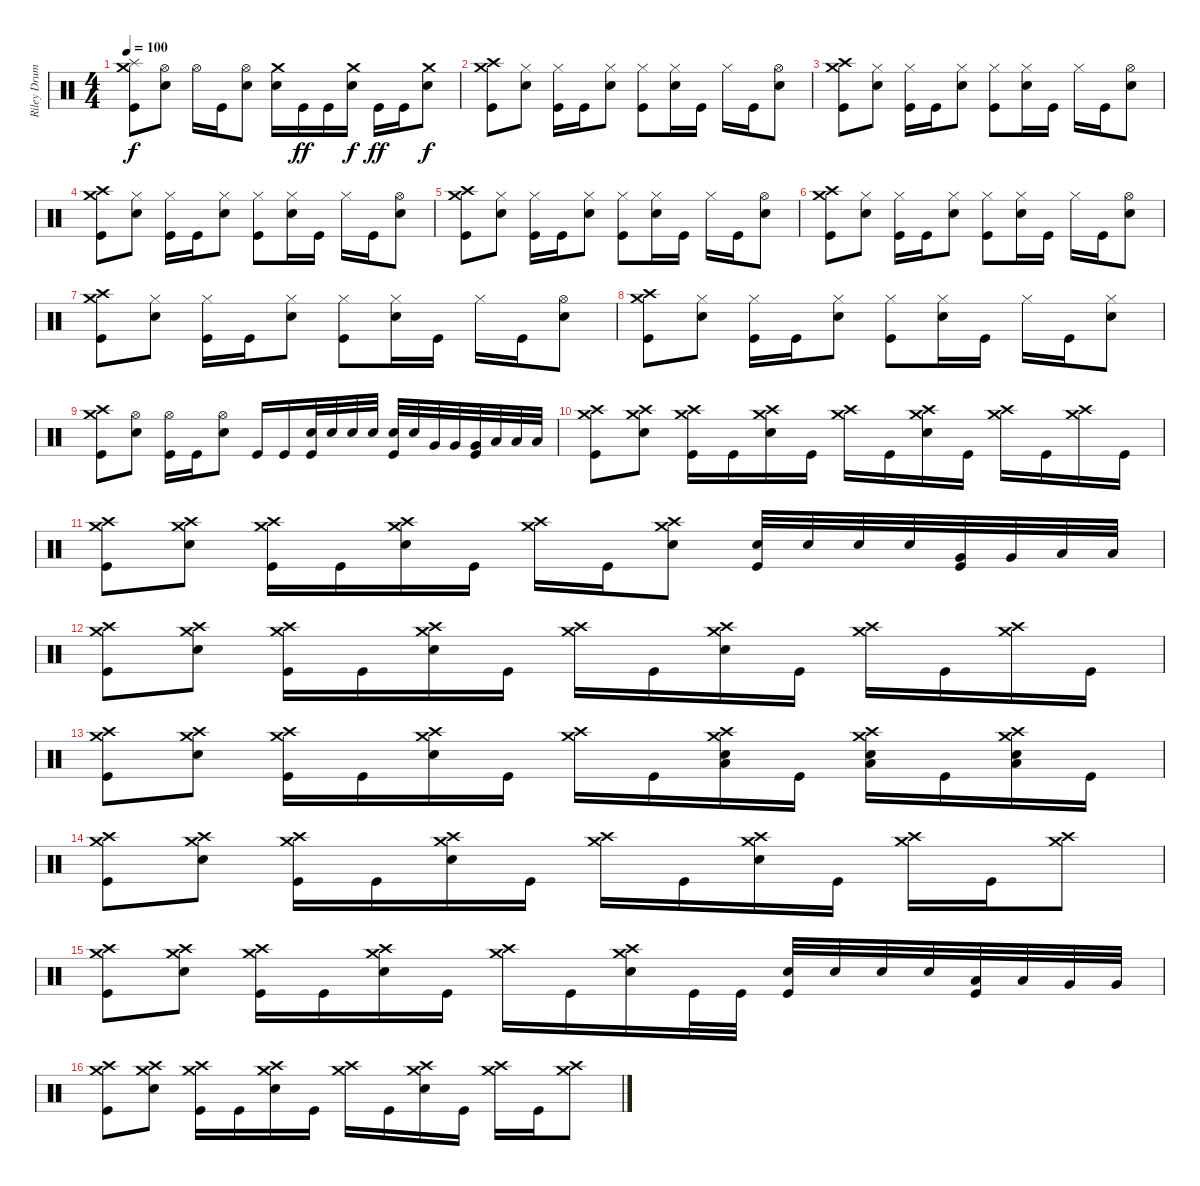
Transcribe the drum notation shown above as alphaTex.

\track ("Riley Drums" "Riley Drum") {instrument percussion}
\staff {score}
\articulation defaults
\ts (4 4)
\tempo 100
\clef neutral
\ks c
("Crash medium (hit)" "Splash (hit)" "Kick (hit)").8{dy f} ("Hi-Hat (open)" "Electric Snare (hit)").8 "Hi-Hat (open)".16 "Kick (hit)".16 ("Hi-Hat (open)" "Electric Snare (hit)").8 ("Crash medium (hit)" "Electric Snare (hit)").16 "Kick (hit)".16{dy ff} "Kick (hit)".16 ("Crash medium (hit)" "Electric Snare (hit)").16{dy f} "Kick (hit)".16{dy ff} "Kick (hit)".16 ("Crash medium (hit)" "Electric Snare (hit)").8{dy f} |
("Crash medium (hit)" "Crash high (hit)" "Kick (hit)").8 ("Hi-Hat (closed)" "Electric Snare (hit)").8 ("Hi-Hat (closed)" "Kick (hit)").16 "Kick (hit)".16 ("Hi-Hat (closed)" "Electric Snare (hit)").8 ("Hi-Hat (closed)" "Kick (hit)").8 ("Hi-Hat (closed)" "Electric Snare (hit)").16 "Kick (hit)".16 "Hi-Hat (closed)".16 "Kick (hit)".16 ("Hi-Hat (open)" "Electric Snare (hit)").8 |
("Crash medium (hit)" "Crash high (hit)" "Kick (hit)").8 ("Hi-Hat (closed)" "Electric Snare (hit)").8 ("Hi-Hat (closed)" "Kick (hit)").16 "Kick (hit)".16 ("Hi-Hat (closed)" "Electric Snare (hit)").8 ("Hi-Hat (closed)" "Kick (hit)").8 ("Hi-Hat (closed)" "Electric Snare (hit)").16 "Kick (hit)".16 "Hi-Hat (closed)".16 "Kick (hit)".16 ("Hi-Hat (open)" "Electric Snare (hit)").8 |
("Crash medium (hit)" "Crash high (hit)" "Kick (hit)").8 ("Hi-Hat (closed)" "Electric Snare (hit)").8 ("Hi-Hat (closed)" "Kick (hit)").16 "Kick (hit)".16 ("Hi-Hat (closed)" "Electric Snare (hit)").8 ("Hi-Hat (closed)" "Kick (hit)").8 ("Hi-Hat (closed)" "Electric Snare (hit)").16 "Kick (hit)".16 "Hi-Hat (closed)".16 "Kick (hit)".16 ("Hi-Hat (open)" "Electric Snare (hit)").8 |
("Crash medium (hit)" "Crash high (hit)" "Kick (hit)").8 ("Hi-Hat (closed)" "Electric Snare (hit)").8 ("Hi-Hat (closed)" "Kick (hit)").16 "Kick (hit)".16 ("Hi-Hat (closed)" "Electric Snare (hit)").8 ("Hi-Hat (closed)" "Kick (hit)").8 ("Hi-Hat (closed)" "Electric Snare (hit)").16 "Kick (hit)".16 "Hi-Hat (closed)".16 "Kick (hit)".16 ("Hi-Hat (open)" "Electric Snare (hit)").8 |
("Crash medium (hit)" "Crash high (hit)" "Kick (hit)").8 ("Hi-Hat (closed)" "Electric Snare (hit)").8 ("Hi-Hat (closed)" "Kick (hit)").16 "Kick (hit)".16 ("Hi-Hat (closed)" "Electric Snare (hit)").8 ("Hi-Hat (closed)" "Kick (hit)").8 ("Hi-Hat (closed)" "Electric Snare (hit)").16 "Kick (hit)".16 "Hi-Hat (closed)".16 "Kick (hit)".16 ("Hi-Hat (open)" "Electric Snare (hit)").8 |
("Crash medium (hit)" "Crash high (hit)" "Kick (hit)").8 ("Hi-Hat (closed)" "Electric Snare (hit)").8 ("Hi-Hat (closed)" "Kick (hit)").16 "Kick (hit)".16 ("Hi-Hat (closed)" "Electric Snare (hit)").8 ("Hi-Hat (closed)" "Kick (hit)").8 ("Hi-Hat (closed)" "Electric Snare (hit)").16 "Kick (hit)".16 "Hi-Hat (closed)".16 "Kick (hit)".16 ("Hi-Hat (open)" "Electric Snare (hit)").8 |
("Crash medium (hit)" "Crash high (hit)" "Kick (hit)").8 ("Hi-Hat (closed)" "Electric Snare (hit)").8 ("Hi-Hat (closed)" "Kick (hit)").16 "Kick (hit)".16 ("Hi-Hat (closed)" "Electric Snare (hit)").8 ("Hi-Hat (closed)" "Kick (hit)").8 ("Hi-Hat (closed)" "Electric Snare (hit)").16 "Kick (hit)".16 "Hi-Hat (closed)".16 "Kick (hit)".16 ("Hi-Hat (closed)" "Electric Snare (hit)").8 |
("Crash medium (hit)" "Crash high (hit)" "Kick (hit)").8 ("Hi-Hat (open)" "Electric Snare (hit)").8 ("Hi-Hat (open)" "Kick (hit)").16 "Kick (hit)".16 ("Hi-Hat (open)" "Electric Snare (hit)").8 "Kick (hit)".16 "Kick (hit)".16 ("Electric Snare (hit)" "Kick (hit)").32 "Electric Snare (hit)".32 "Electric Snare (hit)".32 "Electric Snare (hit)".32 ("Electric Snare (hit)" "Kick (hit)").32 "Electric Snare (hit)".32 "Very Low Tom (hit)".32 "Very Low Tom (hit)".32 ("Very Low Tom (hit)" "Kick (hit)").32 "Low Floor Tom (hit)".32 "Low Floor Tom (hit)".32 "Low Floor Tom (hit)".32 |
("Crash medium (hit)" "Crash high (hit)" "Kick (hit)").8 ("Crash medium (hit)" "Crash high (hit)" "Electric Snare (hit)").8 ("Crash medium (hit)" "Crash high (hit)" "Kick (hit)").16 "Kick (hit)".16 ("Crash medium (hit)" "Crash high (hit)" "Electric Snare (hit)").16 "Kick (hit)".16 ("Crash medium (hit)" "Crash high (hit)").16 "Kick (hit)".16 ("Crash medium (hit)" "Crash high (hit)" "Electric Snare (hit)").16 "Kick (hit)".16 ("Crash medium (hit)" "Crash high (hit)").16 "Kick (hit)".16 ("Crash medium (hit)" "Crash high (hit)").16 "Kick (hit)".16 |
("Crash medium (hit)" "Crash high (hit)" "Kick (hit)").8 ("Crash medium (hit)" "Crash high (hit)" "Electric Snare (hit)").8 ("Crash medium (hit)" "Crash high (hit)" "Kick (hit)").16 "Kick (hit)".16 ("Crash medium (hit)" "Crash high (hit)" "Electric Snare (hit)").16 "Kick (hit)".16 ("Crash medium (hit)" "Crash high (hit)").16 "Kick (hit)".16 ("Crash medium (hit)" "Crash high (hit)" "Electric Snare (hit)").8 ("Electric Snare (hit)" "Kick (hit)").32 "Electric Snare (hit)".32 "Electric Snare (hit)".32 "Electric Snare (hit)".32 ("Very Low Tom (hit)" "Kick (hit)").32 "Very Low Tom (hit)".32 "Low Floor Tom (hit)".32 "Low Floor Tom (hit)".32 |
("Crash medium (hit)" "Crash high (hit)" "Kick (hit)").8 ("Crash medium (hit)" "Crash high (hit)" "Electric Snare (hit)").8 ("Crash medium (hit)" "Crash high (hit)" "Kick (hit)").16 "Kick (hit)".16 ("Crash medium (hit)" "Crash high (hit)" "Electric Snare (hit)").16 "Kick (hit)".16 ("Crash medium (hit)" "Crash high (hit)").16 "Kick (hit)".16 ("Crash medium (hit)" "Crash high (hit)" "Electric Snare (hit)").16 "Kick (hit)".16 ("Crash medium (hit)" "Crash high (hit)").16 "Kick (hit)".16 ("Crash medium (hit)" "Crash high (hit)").16 "Kick (hit)".16 |
("Crash medium (hit)" "Crash high (hit)" "Kick (hit)").8 ("Crash medium (hit)" "Crash high (hit)" "Electric Snare (hit)").8 ("Crash medium (hit)" "Crash high (hit)" "Kick (hit)").16 "Kick (hit)".16 ("Crash medium (hit)" "Crash high (hit)" "Electric Snare (hit)").16 "Kick (hit)".16 ("Crash medium (hit)" "Crash high (hit)").16 "Kick (hit)".16 ("Crash medium (hit)" "Crash high (hit)" "Electric Snare (hit)" "Low Floor Tom (hit)").16 "Kick (hit)".16 ("Crash medium (hit)" "Crash high (hit)" "Electric Snare (hit)" "Low Floor Tom (hit)").16 "Kick (hit)".16 ("Crash medium (hit)" "Crash high (hit)" "Electric Snare (hit)" "Low Floor Tom (hit)").16 "Kick (hit)".16 |
("Crash medium (hit)" "Crash high (hit)" "Kick (hit)").8 ("Crash medium (hit)" "Crash high (hit)" "Electric Snare (hit)").8 ("Crash medium (hit)" "Crash high (hit)" "Kick (hit)").16 "Kick (hit)".16 ("Crash medium (hit)" "Crash high (hit)" "Electric Snare (hit)").16 "Kick (hit)".16 ("Crash medium (hit)" "Crash high (hit)").16 "Kick (hit)".16 ("Crash medium (hit)" "Crash high (hit)" "Electric Snare (hit)").16 "Kick (hit)".16 ("Crash medium (hit)" "Crash high (hit)").16 "Kick (hit)".16 ("Crash medium (hit)" "Crash high (hit)").8 |
("Crash medium (hit)" "Crash high (hit)" "Kick (hit)").8 ("Crash medium (hit)" "Crash high (hit)" "Electric Snare (hit)").8 ("Crash medium (hit)" "Crash high (hit)" "Kick (hit)").16 "Kick (hit)".16 ("Crash medium (hit)" "Crash high (hit)" "Electric Snare (hit)").16 "Kick (hit)".16 ("Crash medium (hit)" "Crash high (hit)").16 "Kick (hit)".16 ("Crash medium (hit)" "Crash high (hit)" "Electric Snare (hit)").16 "Kick (hit)".32 "Kick (hit)".32 ("Electric Snare (hit)" "Kick (hit)").32 "Electric Snare (hit)".32 "Electric Snare (hit)".32 "Electric Snare (hit)".32 ("Low Tom (hit)" "Kick (hit)").32 "Low Tom (hit)".32 "Very Low Tom (hit)".32 "Very Low Tom (hit)".32 |
("Crash medium (hit)" "Crash high (hit)" "Kick (hit)").8 ("Crash medium (hit)" "Crash high (hit)" "Electric Snare (hit)").8 ("Crash medium (hit)" "Crash high (hit)" "Kick (hit)").16 "Kick (hit)".16 ("Crash medium (hit)" "Crash high (hit)" "Electric Snare (hit)").16 "Kick (hit)".16 ("Crash medium (hit)" "Crash high (hit)").16 "Kick (hit)".16 ("Crash medium (hit)" "Crash high (hit)" "Electric Snare (hit)").16 "Kick (hit)".16 ("Crash medium (hit)" "Crash high (hit)").16 "Kick (hit)".16 ("Crash medium (hit)" "Crash high (hit)").8
